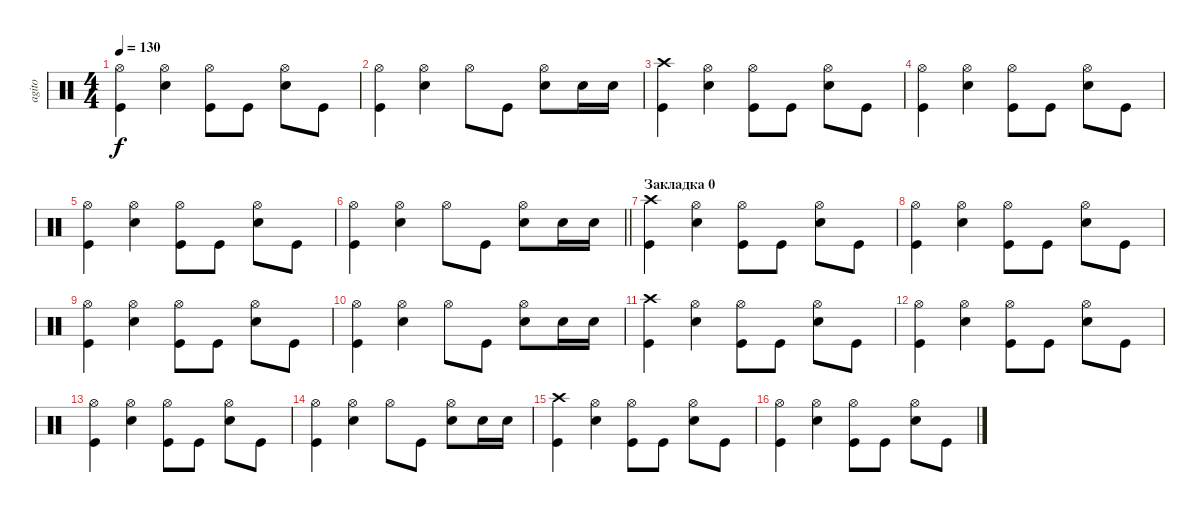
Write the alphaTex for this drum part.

\track ("agito" "agito") {instrument percussion}
\staff {score}
\articulation defaults
\ts (4 4)
\tempo 130
\clef neutral
\ks c
("Hi-Hat (open)" "Kick (hit)").4{dy f} ("Hi-Hat (open)" "Snare (hit) 2").4 ("Hi-Hat (open)" "Kick (hit)").8 "Kick (hit)".8 ("Hi-Hat (open)" "Snare (hit) 2").8 "Kick (hit)".8 |
("Hi-Hat (open)" "Kick (hit)").4 ("Hi-Hat (open)" "Snare (hit) 2").4 "Hi-Hat (open)".8 "Kick (hit)".8 ("Hi-Hat (open)" "Snare (hit) 2").8 "Snare (hit) 2".16 "Snare (hit) 2".16 |
("Crash high (hit)" "Kick (hit)").4 ("Hi-Hat (open)" "Snare (hit) 2").4 ("Hi-Hat (open)" "Kick (hit)").8 "Kick (hit)".8 ("Hi-Hat (open)" "Snare (hit) 2").8 "Kick (hit)".8 |
("Hi-Hat (open)" "Kick (hit)").4 ("Hi-Hat (open)" "Snare (hit) 2").4 ("Hi-Hat (open)" "Kick (hit)").8 "Kick (hit)".8 ("Hi-Hat (open)" "Snare (hit) 2").8 "Kick (hit)".8 |
("Hi-Hat (open)" "Kick (hit)").4 ("Hi-Hat (open)" "Snare (hit) 2").4 ("Hi-Hat (open)" "Kick (hit)").8 "Kick (hit)".8 ("Hi-Hat (open)" "Snare (hit) 2").8 "Kick (hit)".8 |
\barLineRight lightlight
("Hi-Hat (open)" "Kick (hit)").4 ("Hi-Hat (open)" "Snare (hit) 2").4 "Hi-Hat (open)".8 "Kick (hit)".8 ("Hi-Hat (open)" "Snare (hit) 2").8 "Snare (hit) 2".16 "Snare (hit) 2".16 |
\section ("" "Закладка 0")
("Crash high (hit)" "Kick (hit)").4 ("Hi-Hat (open)" "Snare (hit) 2").4 ("Hi-Hat (open)" "Kick (hit)").8 "Kick (hit)".8 ("Hi-Hat (open)" "Snare (hit) 2").8 "Kick (hit)".8 |
("Hi-Hat (open)" "Kick (hit)").4 ("Hi-Hat (open)" "Snare (hit) 2").4 ("Hi-Hat (open)" "Kick (hit)").8 "Kick (hit)".8 ("Hi-Hat (open)" "Snare (hit) 2").8 "Kick (hit)".8 |
("Hi-Hat (open)" "Kick (hit)").4 ("Hi-Hat (open)" "Snare (hit) 2").4 ("Hi-Hat (open)" "Kick (hit)").8 "Kick (hit)".8 ("Hi-Hat (open)" "Snare (hit) 2").8 "Kick (hit)".8 |
("Hi-Hat (open)" "Kick (hit)").4 ("Hi-Hat (open)" "Snare (hit) 2").4 "Hi-Hat (open)".8 "Kick (hit)".8 ("Hi-Hat (open)" "Snare (hit) 2").8 "Snare (hit) 2".16 "Snare (hit) 2".16 |
("Crash high (hit)" "Kick (hit)").4 ("Hi-Hat (open)" "Snare (hit) 2").4 ("Hi-Hat (open)" "Kick (hit)").8 "Kick (hit)".8 ("Hi-Hat (open)" "Snare (hit) 2").8 "Kick (hit)".8 |
("Hi-Hat (open)" "Kick (hit)").4 ("Hi-Hat (open)" "Snare (hit) 2").4 ("Hi-Hat (open)" "Kick (hit)").8 "Kick (hit)".8 ("Hi-Hat (open)" "Snare (hit) 2").8 "Kick (hit)".8 |
("Hi-Hat (open)" "Kick (hit)").4 ("Hi-Hat (open)" "Snare (hit) 2").4 ("Hi-Hat (open)" "Kick (hit)").8 "Kick (hit)".8 ("Hi-Hat (open)" "Snare (hit) 2").8 "Kick (hit)".8 |
("Hi-Hat (open)" "Kick (hit)").4 ("Hi-Hat (open)" "Snare (hit) 2").4 "Hi-Hat (open)".8 "Kick (hit)".8 ("Hi-Hat (open)" "Snare (hit) 2").8 "Snare (hit) 2".16 "Snare (hit) 2".16 |
("Crash high (hit)" "Kick (hit)").4 ("Hi-Hat (open)" "Snare (hit) 2").4 ("Hi-Hat (open)" "Kick (hit)").8 "Kick (hit)".8 ("Hi-Hat (open)" "Snare (hit) 2").8 "Kick (hit)".8 |
("Hi-Hat (open)" "Kick (hit)").4 ("Hi-Hat (open)" "Snare (hit) 2").4 ("Hi-Hat (open)" "Kick (hit)").8 "Kick (hit)".8 ("Hi-Hat (open)" "Snare (hit) 2").8 "Kick (hit)".8
